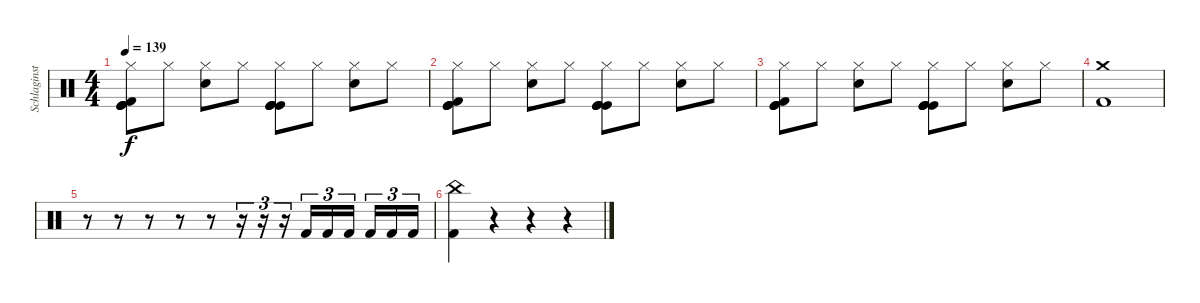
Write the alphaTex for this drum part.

\track ("Schlaginstrumente - Auswahl" "Schlaginst") {instrument percussion}
\staff {score}
\articulation defaults
\ts (4 4)
\tempo 139
\clef neutral
\ks c
("Kick (hit)" "Kick (hit)" "Kick (hit)" "Hi-Hat (closed)" "Kick (hit) 2").8{dy f} "Hi-Hat (closed)".8 ("Hi-Hat (closed)" "Snare (hit) 2").8 "Hi-Hat (closed)".8 ("Kick (hit)" "Kick (hit)" "Kick (hit)" "Hi-Hat (closed)" "Kick (hit)").8 "Hi-Hat (closed)".8 ("Hi-Hat (closed)" "Snare (hit) 2").8 "Hi-Hat (closed)".8 |
("Kick (hit)" "Kick (hit)" "Kick (hit)" "Hi-Hat (closed)" "Kick (hit) 2").8 "Hi-Hat (closed)".8 ("Hi-Hat (closed)" "Snare (hit) 2").8 "Hi-Hat (closed)".8 ("Kick (hit)" "Kick (hit)" "Kick (hit)" "Hi-Hat (closed)" "Kick (hit)").8 "Hi-Hat (closed)".8 ("Hi-Hat (closed)" "Snare (hit) 2").8 "Hi-Hat (closed)".8 |
("Kick (hit)" "Kick (hit)" "Kick (hit)" "Hi-Hat (closed)" "Kick (hit) 2").8 "Hi-Hat (closed)".8 ("Hi-Hat (closed)" "Snare (hit) 2").8 "Hi-Hat (closed)".8 ("Kick (hit)" "Kick (hit)" "Kick (hit)" "Hi-Hat (closed)" "Kick (hit)").8 "Hi-Hat (closed)".8 ("Hi-Hat (closed)" "Snare (hit) 2").8 "Hi-Hat (closed)".8 |
("Crash medium (hit)" "Kick (hit) 2").1 |
r.8 r.8 r.8 r.8 r.8 r.16{tu (3 2)} r.16{tu (3 2)} r.16{tu (3 2)} "Kick (hit) 2".16{tu (3 2)} "Kick (hit) 2".16{tu (3 2)} "Kick (hit) 2".16{tu (3 2) beam splitsecondary} "Kick (hit) 2".16{tu (3 2)} "Kick (hit) 2".16{tu (3 2)} "Kick (hit) 2".16{tu (3 2)} |
("China (hit)" "Kick (hit) 2").4 r.4 r.4 r.4
